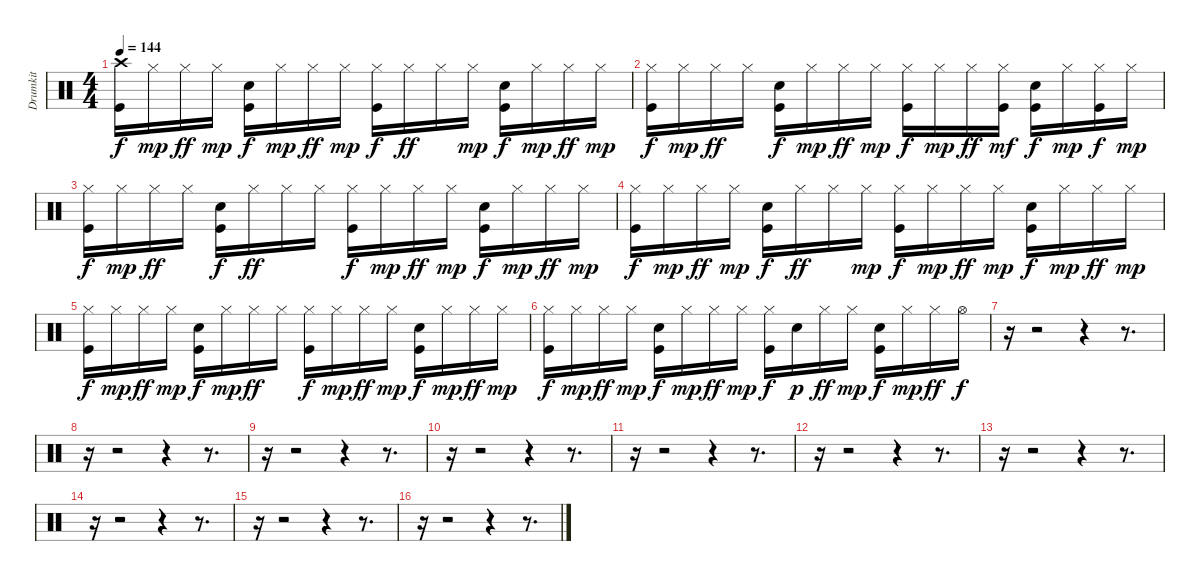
\track ("Drumkit" "Drumkit") {instrument percussion}
\staff {score}
\articulation defaults
\ts (4 4)
\tempo 144
\clef neutral
\ks c
("Kick (hit)" "Crash high (hit)").16{dy f} "Hi-Hat (closed)".16{dy mp} "Hi-Hat (closed)".16{dy ff} "Hi-Hat (closed)".16{dy mp} ("Kick (hit)" "Snare (hit) 2").16{dy f} "Hi-Hat (closed)".16{dy mp} "Hi-Hat (closed)".16{dy ff} "Hi-Hat (closed)".16{dy mp} ("Kick (hit)" "Hi-Hat (closed)").16{dy f} "Hi-Hat (closed)".16{dy ff} "Hi-Hat (closed)".16 "Hi-Hat (closed)".16{dy mp} ("Kick (hit)" "Snare (hit) 2").16{dy f} "Hi-Hat (closed)".16{dy mp} "Hi-Hat (closed)".16{dy ff} "Hi-Hat (closed)".16{dy mp} |
("Kick (hit)" "Hi-Hat (closed)").16{dy f} "Hi-Hat (closed)".16{dy mp} "Hi-Hat (closed)".16{dy ff} "Hi-Hat (closed)".16 ("Kick (hit)" "Snare (hit) 2").16{dy f} "Hi-Hat (closed)".16{dy mp} "Hi-Hat (closed)".16{dy ff} "Hi-Hat (closed)".16{dy mp} ("Kick (hit)" "Hi-Hat (closed)").16{dy f} "Hi-Hat (closed)".16{dy mp} "Hi-Hat (closed)".16{dy ff} ("Kick (hit)" "Hi-Hat (closed)").16{dy mf} ("Kick (hit)" "Snare (hit) 2").16{dy f} "Hi-Hat (closed)".16{dy mp} ("Kick (hit)" "Hi-Hat (closed)").16{dy f} "Hi-Hat (closed)".16{dy mp} |
("Kick (hit)" "Hi-Hat (closed)").16{dy f} "Hi-Hat (closed)".16{dy mp} "Hi-Hat (closed)".16{dy ff} "Hi-Hat (closed)".16 ("Kick (hit)" "Snare (hit) 2").16{dy f} "Hi-Hat (closed)".16{dy ff} "Hi-Hat (closed)".16 "Hi-Hat (closed)".16 ("Kick (hit)" "Hi-Hat (closed)").16{dy f} "Hi-Hat (closed)".16{dy mp} "Hi-Hat (closed)".16{dy ff} "Hi-Hat (closed)".16{dy mp} ("Kick (hit)" "Snare (hit) 2").16{dy f} "Hi-Hat (closed)".16{dy mp} "Hi-Hat (closed)".16{dy ff} "Hi-Hat (closed)".16{dy mp} |
("Kick (hit)" "Hi-Hat (closed)").16{dy f} "Hi-Hat (closed)".16{dy mp} "Hi-Hat (closed)".16{dy ff} "Hi-Hat (closed)".16{dy mp} ("Kick (hit)" "Snare (hit) 2").16{dy f} "Hi-Hat (closed)".16{dy ff} "Hi-Hat (closed)".16 "Hi-Hat (closed)".16{dy mp} ("Kick (hit)" "Hi-Hat (closed)").16{dy f} "Hi-Hat (closed)".16{dy mp} "Hi-Hat (closed)".16{dy ff} "Hi-Hat (closed)".16{dy mp} ("Kick (hit)" "Snare (hit) 2").16{dy f} "Hi-Hat (closed)".16{dy mp} "Hi-Hat (closed)".16{dy ff} "Hi-Hat (closed)".16{dy mp} |
("Kick (hit)" "Hi-Hat (closed)").16{dy f} "Hi-Hat (closed)".16{dy mp} "Hi-Hat (closed)".16{dy ff} "Hi-Hat (closed)".16{dy mp} ("Kick (hit)" "Snare (hit) 2").16{dy f} "Hi-Hat (closed)".16{dy mp} "Hi-Hat (closed)".16{dy ff} "Hi-Hat (closed)".16 ("Kick (hit)" "Hi-Hat (closed)").16{dy f} "Hi-Hat (closed)".16{dy mp} "Hi-Hat (closed)".16{dy ff} "Hi-Hat (closed)".16{dy mp} ("Kick (hit)" "Snare (hit) 2").16{dy f} "Hi-Hat (closed)".16{dy mp} "Hi-Hat (closed)".16{dy ff} "Hi-Hat (closed)".16{dy mp} |
("Kick (hit)" "Hi-Hat (closed)").16{dy f} "Hi-Hat (closed)".16{dy mp} "Hi-Hat (closed)".16{dy ff} "Hi-Hat (closed)".16{dy mp} ("Kick (hit)" "Snare (hit) 2").16{dy f} "Hi-Hat (closed)".16{dy mp} "Hi-Hat (closed)".16{dy ff} "Hi-Hat (closed)".16{dy mp} ("Kick (hit)" "Hi-Hat (closed)").16{dy f} "Snare (hit) 2".16{dy p} "Hi-Hat (closed)".16{dy ff} "Hi-Hat (closed)".16{dy mp} ("Kick (hit)" "Snare (hit) 2").16{dy f} "Hi-Hat (closed)".16{dy mp} "Hi-Hat (closed)".16{dy ff} "Hi-Hat (open)".16{dy f} |
r.16 r.2 r.4 r.8{d} |
r.16 r.2 r.4 r.8{d} |
r.16 r.2 r.4 r.8{d} |
r.16 r.2 r.4 r.8{d} |
r.16 r.2 r.4 r.8{d} |
r.16 r.2 r.4 r.8{d} |
r.16 r.2 r.4 r.8{d} |
r.16 r.2 r.4 r.8{d} |
r.16 r.2 r.4 r.8{d} |
r.16 r.2 r.4 r.8{d}
